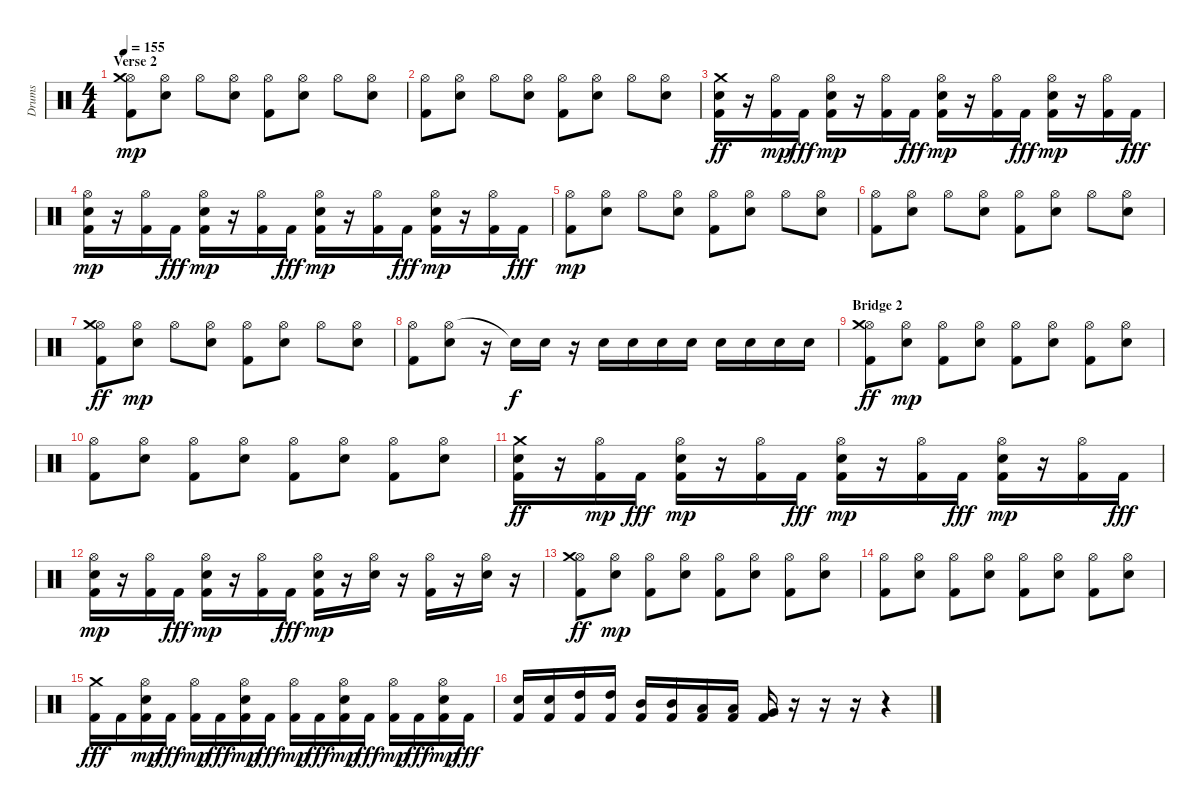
\track ("Drums" "Drums") {instrument percussion}
\staff {score}
\articulation defaults
\ts (4 4)
\section ("" "Verse 2")
\tempo 155
\clef neutral
\ks c
("Kick (hit) 2" "Hi-Hat (open)" "Crash medium (hit)").8{dy mp} ("Hi-Hat (open)" "Snare (hit) 2").8 "Hi-Hat (open)".8 ("Hi-Hat (open)" "Snare (hit) 2").8 ("Kick (hit) 2" "Hi-Hat (open)").8 ("Hi-Hat (open)" "Snare (hit) 2").8 "Hi-Hat (open)".8 ("Hi-Hat (open)" "Snare (hit) 2").8 |
("Kick (hit) 2" "Hi-Hat (open)").8 ("Hi-Hat (open)" "Snare (hit) 2").8 "Hi-Hat (open)".8 ("Hi-Hat (open)" "Snare (hit) 2").8 ("Kick (hit) 2" "Hi-Hat (open)").8 ("Hi-Hat (open)" "Snare (hit) 2").8 "Hi-Hat (open)".8 ("Hi-Hat (open)" "Snare (hit) 2").8 |
("Kick (hit) 2" "Snare (hit) 2" "Crash medium (hit)").16{dy ff} r.16 ("Kick (hit) 2" "Hi-Hat (open)").16{dy mp} "Kick (hit) 2".16{dy fff} ("Kick (hit) 2" "Hi-Hat (open)" "Snare (hit) 2").16{dy mp} r.16 ("Kick (hit) 2" "Hi-Hat (open)").16 "Kick (hit) 2".16{dy fff} ("Kick (hit) 2" "Hi-Hat (open)" "Snare (hit) 2").16{dy mp} r.16 ("Kick (hit) 2" "Hi-Hat (open)").16 "Kick (hit) 2".16{dy fff} ("Kick (hit) 2" "Hi-Hat (open)" "Snare (hit) 2").16{dy mp} r.16 ("Kick (hit) 2" "Hi-Hat (open)").16 "Kick (hit) 2".16{dy fff} |
("Kick (hit) 2" "Hi-Hat (open)" "Snare (hit) 2").16{dy mp} r.16 ("Kick (hit) 2" "Hi-Hat (open)").16 "Kick (hit) 2".16{dy fff} ("Kick (hit) 2" "Hi-Hat (open)" "Snare (hit) 2").16{dy mp} r.16 ("Kick (hit) 2" "Hi-Hat (open)").16 "Kick (hit) 2".16{dy fff} ("Kick (hit) 2" "Hi-Hat (open)" "Snare (hit) 2").16{dy mp} r.16 ("Kick (hit) 2" "Hi-Hat (open)").16 "Kick (hit) 2".16{dy fff} ("Kick (hit) 2" "Hi-Hat (open)" "Snare (hit) 2").16{dy mp} r.16 ("Kick (hit) 2" "Hi-Hat (open)").16 "Kick (hit) 2".16{dy fff} |
("Kick (hit) 2" "Hi-Hat (open)").8{dy mp} ("Hi-Hat (open)" "Snare (hit) 2").8 "Hi-Hat (open)".8 ("Hi-Hat (open)" "Snare (hit) 2").8 ("Kick (hit) 2" "Hi-Hat (open)").8 ("Hi-Hat (open)" "Snare (hit) 2").8 "Hi-Hat (open)".8 ("Hi-Hat (open)" "Snare (hit) 2").8 |
("Kick (hit) 2" "Hi-Hat (open)").8 ("Hi-Hat (open)" "Snare (hit) 2").8 "Hi-Hat (open)".8 ("Hi-Hat (open)" "Snare (hit) 2").8 ("Kick (hit) 2" "Hi-Hat (open)").8 ("Hi-Hat (open)" "Snare (hit) 2").8 "Hi-Hat (open)".8 ("Hi-Hat (open)" "Snare (hit) 2").8 |
("Kick (hit) 2" "Hi-Hat (open)" "Crash medium (hit)").8{dy ff} ("Hi-Hat (open)" "Snare (hit) 2").8{dy mp} "Hi-Hat (open)".8 ("Hi-Hat (open)" "Snare (hit) 2").8 ("Kick (hit) 2" "Hi-Hat (open)").8 ("Hi-Hat (open)" "Snare (hit) 2").8 "Hi-Hat (open)".8 ("Hi-Hat (open)" "Snare (hit) 2").8 |
("Kick (hit) 2" "Hi-Hat (open)").8 ("Hi-Hat (open)" "Snare (hit) 2").8 r.16 "Snare (hit) 2"{t}.16{dy f} "Snare (hit) 2".16 r.16 "Snare (hit) 2".16 "Snare (hit) 2".16 "Snare (hit) 2".16 "Snare (hit) 2".16 "Snare (hit) 2".16 "Snare (hit) 2".16 "Snare (hit) 2".16 "Snare (hit) 2".16 |
\section ("" "Bridge 2")
("Kick (hit) 2" "Hi-Hat (open)" "Crash medium (hit)").8{dy ff} ("Hi-Hat (open)" "Snare (hit) 2").8{dy mp} ("Kick (hit) 2" "Hi-Hat (open)").8 ("Hi-Hat (open)" "Snare (hit) 2").8 ("Kick (hit) 2" "Hi-Hat (open)").8 ("Hi-Hat (open)" "Snare (hit) 2").8 ("Kick (hit) 2" "Hi-Hat (open)").8 ("Hi-Hat (open)" "Snare (hit) 2").8 |
("Kick (hit) 2" "Hi-Hat (open)").8 ("Hi-Hat (open)" "Snare (hit) 2").8 ("Kick (hit) 2" "Hi-Hat (open)").8 ("Hi-Hat (open)" "Snare (hit) 2").8 ("Kick (hit) 2" "Hi-Hat (open)").8 ("Hi-Hat (open)" "Snare (hit) 2").8 ("Kick (hit) 2" "Hi-Hat (open)").8 ("Hi-Hat (open)" "Snare (hit) 2").8 |
("Kick (hit) 2" "Snare (hit) 2" "Crash medium (hit)").16{dy ff} r.16 ("Kick (hit) 2" "Hi-Hat (open)").16{dy mp} "Kick (hit) 2".16{dy fff} ("Kick (hit) 2" "Hi-Hat (open)" "Snare (hit) 2").16{dy mp} r.16 ("Kick (hit) 2" "Hi-Hat (open)").16 "Kick (hit) 2".16{dy fff} ("Kick (hit) 2" "Hi-Hat (open)" "Snare (hit) 2").16{dy mp} r.16 ("Kick (hit) 2" "Hi-Hat (open)").16 "Kick (hit) 2".16{dy fff} ("Kick (hit) 2" "Hi-Hat (open)" "Snare (hit) 2").16{dy mp} r.16 ("Kick (hit) 2" "Hi-Hat (open)").16 "Kick (hit) 2".16{dy fff} |
("Kick (hit) 2" "Hi-Hat (open)" "Snare (hit) 2").16{dy mp} r.16 ("Kick (hit) 2" "Hi-Hat (open)").16 "Kick (hit) 2".16{dy fff} ("Kick (hit) 2" "Hi-Hat (open)" "Snare (hit) 2").16{dy mp} r.16 ("Kick (hit) 2" "Hi-Hat (open)").16 "Kick (hit) 2".16{dy fff} ("Kick (hit) 2" "Hi-Hat (open)" "Snare (hit) 2").16{dy mp} r.16 ("Hi-Hat (open)" "Snare (hit) 2").16 r.16 ("Kick (hit) 2" "Hi-Hat (open)").16 r.16 ("Hi-Hat (open)" "Snare (hit) 2").16 r.16 |
("Kick (hit) 2" "Hi-Hat (open)" "Crash medium (hit)").8{dy ff} ("Hi-Hat (open)" "Snare (hit) 2").8{dy mp} ("Kick (hit) 2" "Hi-Hat (open)").8 ("Hi-Hat (open)" "Snare (hit) 2").8 ("Kick (hit) 2" "Hi-Hat (open)").8 ("Hi-Hat (open)" "Snare (hit) 2").8 ("Kick (hit) 2" "Hi-Hat (open)").8 ("Hi-Hat (open)" "Snare (hit) 2").8 |
("Kick (hit) 2" "Hi-Hat (open)").8 ("Hi-Hat (open)" "Snare (hit) 2").8 ("Kick (hit) 2" "Hi-Hat (open)").8 ("Hi-Hat (open)" "Snare (hit) 2").8 ("Kick (hit) 2" "Hi-Hat (open)").8 ("Hi-Hat (open)" "Snare (hit) 2").8 ("Kick (hit) 2" "Hi-Hat (open)").8 ("Hi-Hat (open)" "Snare (hit) 2").8 |
("Kick (hit) 2" "Crash medium (hit)").16{dy fff} "Kick (hit) 2".16 ("Kick (hit) 2" "Hi-Hat (open)" "Snare (hit) 2").16{dy mp} "Kick (hit) 2".16{dy fff} ("Kick (hit) 2" "Hi-Hat (open)").16{dy mp} "Kick (hit) 2".16{dy fff} ("Kick (hit) 2" "Hi-Hat (open)" "Snare (hit) 2").16{dy mp} "Kick (hit) 2".16{dy fff} ("Kick (hit) 2" "Hi-Hat (open)").16{dy mp} "Kick (hit) 2".16{dy fff} ("Kick (hit) 2" "Hi-Hat (open)" "Snare (hit) 2").16{dy mp} "Kick (hit) 2".16{dy fff} ("Kick (hit) 2" "Hi-Hat (open)").16{dy mp} "Kick (hit) 2".16{dy fff} ("Kick (hit) 2" "Hi-Hat (open)" "Snare (hit) 2").16{dy mp} "Kick (hit) 2".16{dy fff} |
("Kick (hit) 2" "Snare (hit) 2").16 ("Kick (hit) 2" "Snare (hit) 2").16 ("Kick (hit) 2" "High Tom (hit)").16 ("Kick (hit) 2" "High Tom (hit)").16 ("Kick (hit) 2" "Mid Tom (hit)").16 ("Kick (hit) 2" "Mid Tom (hit)").16 ("Kick (hit) 2" "Low Tom (hit)").16 ("Kick (hit) 2" "Low Tom (hit)").16 ("Kick (hit) 2" "Very Low Tom (hit)").16 r.16 r.16 r.16 r.4
